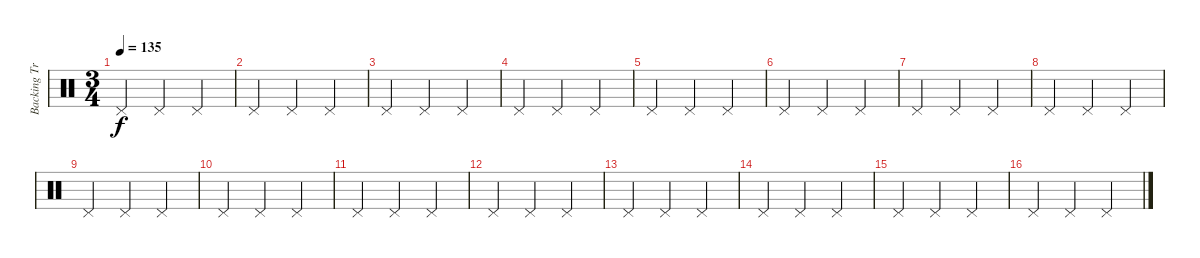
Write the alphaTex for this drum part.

\track ("Backing Track" "Backing Tr") {instrument percussion}
\staff {score}
\articulation defaults
\ts (3 4)
\tempo 135
\clef neutral
\ks c "Pedal Hi-Hat (hit)".4{dy f} "Pedal Hi-Hat (hit)".4 "Pedal Hi-Hat (hit)".4
|
"Pedal Hi-Hat (hit)".4 "Pedal Hi-Hat (hit)".4 "Pedal Hi-Hat (hit)".4 |
"Pedal Hi-Hat (hit)".4 "Pedal Hi-Hat (hit)".4 "Pedal Hi-Hat (hit)".4 |
"Pedal Hi-Hat (hit)".4 "Pedal Hi-Hat (hit)".4 "Pedal Hi-Hat (hit)".4 |
"Pedal Hi-Hat (hit)".4 "Pedal Hi-Hat (hit)".4 "Pedal Hi-Hat (hit)".4 |
"Pedal Hi-Hat (hit)".4 "Pedal Hi-Hat (hit)".4 "Pedal Hi-Hat (hit)".4 |
"Pedal Hi-Hat (hit)".4 "Pedal Hi-Hat (hit)".4 "Pedal Hi-Hat (hit)".4 |
"Pedal Hi-Hat (hit)".4 "Pedal Hi-Hat (hit)".4 "Pedal Hi-Hat (hit)".4 |
"Pedal Hi-Hat (hit)".4 "Pedal Hi-Hat (hit)".4 "Pedal Hi-Hat (hit)".4 |
"Pedal Hi-Hat (hit)".4 "Pedal Hi-Hat (hit)".4 "Pedal Hi-Hat (hit)".4 |
"Pedal Hi-Hat (hit)".4 "Pedal Hi-Hat (hit)".4 "Pedal Hi-Hat (hit)".4 |
"Pedal Hi-Hat (hit)".4 "Pedal Hi-Hat (hit)".4 "Pedal Hi-Hat (hit)".4 |
"Pedal Hi-Hat (hit)".4 "Pedal Hi-Hat (hit)".4 "Pedal Hi-Hat (hit)".4 |
"Pedal Hi-Hat (hit)".4 "Pedal Hi-Hat (hit)".4 "Pedal Hi-Hat (hit)".4 |
"Pedal Hi-Hat (hit)".4 "Pedal Hi-Hat (hit)".4 "Pedal Hi-Hat (hit)".4 |
"Pedal Hi-Hat (hit)".4 "Pedal Hi-Hat (hit)".4 "Pedal Hi-Hat (hit)".4
